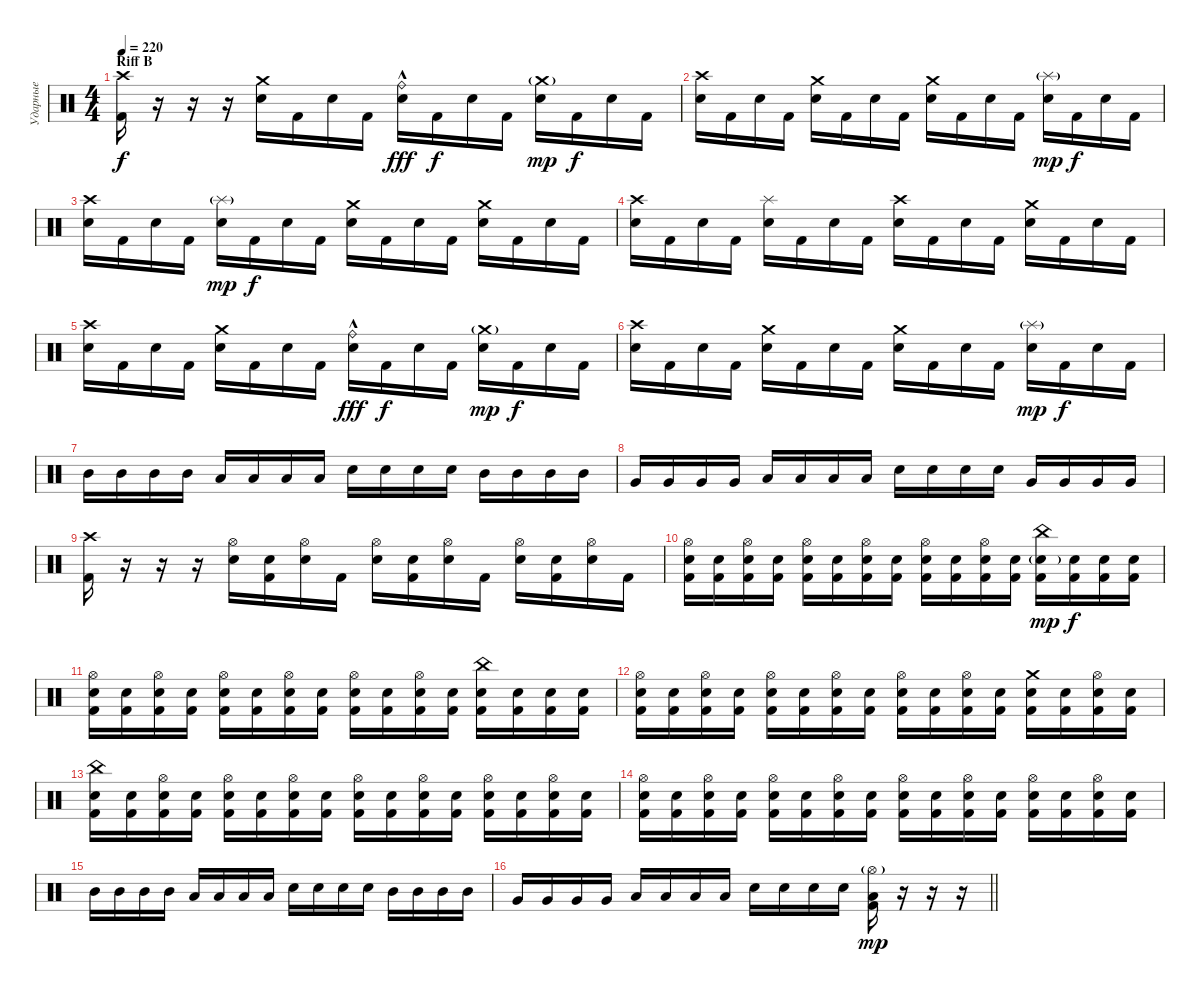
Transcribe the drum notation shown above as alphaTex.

\track ("Ударные" "Ударные") {instrument percussion}
\staff {score}
\articulation defaults
\ts (4 4)
\section ("" "Riff B")
\tempo 220
\clef neutral
\ks c
("Kick (hit) 2" "Crash high (hit)").16{dy f} r.16 r.16 r.16 ("Electric Snare (hit)" "Crash medium (hit)").16 "Kick (hit) 2".16 "Electric Snare (hit)".16 "Kick (hit) 2".16 ("Electric Snare (hit)" "Ride (bell)"{hac}).16{dy fff} "Kick (hit) 2".16{dy f} "Electric Snare (hit)".16 "Kick (hit) 2".16 ("Electric Snare (hit)" "Crash medium (hit)"{g}).16{dy mp} "Kick (hit) 2".16{dy f} "Electric Snare (hit)".16 "Kick (hit) 2".16 |
("Electric Snare (hit)" "Crash high (hit)").16 "Kick (hit) 2".16 "Electric Snare (hit)".16 "Kick (hit) 2".16 ("Electric Snare (hit)" "Crash medium (hit)").16 "Kick (hit) 2".16 "Electric Snare (hit)".16 "Kick (hit) 2".16 ("Electric Snare (hit)" "Crash medium (hit)").16 "Kick (hit) 2".16 "Electric Snare (hit)".16 "Kick (hit) 2".16 ("Electric Snare (hit)" "Splash (hit)"{g}).16{dy mp} "Kick (hit) 2".16{dy f} "Electric Snare (hit)".16 "Kick (hit) 2".16 |
("Electric Snare (hit)" "Crash high (hit)").16 "Kick (hit) 2".16 "Electric Snare (hit)".16 "Kick (hit) 2".16 ("Electric Snare (hit)" "Splash (hit)"{g}).16{dy mp} "Kick (hit) 2".16{dy f} "Electric Snare (hit)".16 "Kick (hit) 2".16 ("Electric Snare (hit)" "Crash medium (hit)").16 "Kick (hit) 2".16 "Electric Snare (hit)".16 "Kick (hit) 2".16 ("Electric Snare (hit)" "Crash medium (hit)").16 "Kick (hit) 2".16 "Electric Snare (hit)".16 "Kick (hit) 2".16 |
("Electric Snare (hit)" "Crash high (hit)").16 "Kick (hit) 2".16 "Electric Snare (hit)".16 "Kick (hit) 2".16 ("Electric Snare (hit)" "Splash (hit)").16 "Kick (hit) 2".16 "Electric Snare (hit)".16 "Kick (hit) 2".16 ("Electric Snare (hit)" "Crash high (hit)").16 "Kick (hit) 2".16 "Electric Snare (hit)".16 "Kick (hit) 2".16 ("Electric Snare (hit)" "Crash medium (hit)").16 "Kick (hit) 2".16 "Electric Snare (hit)".16 "Kick (hit) 2".16 |
("Electric Snare (hit)" "Crash high (hit)").16 "Kick (hit) 2".16 "Electric Snare (hit)".16 "Kick (hit) 2".16 ("Electric Snare (hit)" "Crash medium (hit)").16 "Kick (hit) 2".16 "Electric Snare (hit)".16 "Kick (hit) 2".16 ("Electric Snare (hit)" "Ride (bell)"{hac}).16{dy fff} "Kick (hit) 2".16{dy f} "Electric Snare (hit)".16 "Kick (hit) 2".16 ("Electric Snare (hit)" "Crash medium (hit)"{g}).16{dy mp} "Kick (hit) 2".16{dy f} "Electric Snare (hit)".16 "Kick (hit) 2".16 |
("Electric Snare (hit)" "Crash high (hit)").16 "Kick (hit) 2".16 "Electric Snare (hit)".16 "Kick (hit) 2".16 ("Electric Snare (hit)" "Crash medium (hit)").16 "Kick (hit) 2".16 "Electric Snare (hit)".16 "Kick (hit) 2".16 ("Electric Snare (hit)" "Crash medium (hit)").16 "Kick (hit) 2".16 "Electric Snare (hit)".16 "Kick (hit) 2".16 ("Electric Snare (hit)" "Splash (hit)"{g}).16{dy mp} "Kick (hit) 2".16{dy f} "Electric Snare (hit)".16 "Kick (hit) 2".16 |
"Mid Tom (hit)".16 "Mid Tom (hit)".16 "Mid Tom (hit)".16 "Mid Tom (hit)".16 "Low Tom (hit)".16 "Low Tom (hit)".16 "Low Tom (hit)".16 "Low Tom (hit)".16 "Electric Snare (hit)".16 "Electric Snare (hit)".16 "Electric Snare (hit)".16 "Electric Snare (hit)".16 "Mid Tom (hit)".16 "Mid Tom (hit)".16 "Mid Tom (hit)".16 "Mid Tom (hit)".16 |
"Very Low Tom (hit)".16 "Very Low Tom (hit)".16 "Very Low Tom (hit)".16 "Very Low Tom (hit)".16 "Low Tom (hit)".16 "Low Tom (hit)".16 "Low Tom (hit)".16 "Low Tom (hit)".16 "Electric Snare (hit)".16 "Electric Snare (hit)".16 "Electric Snare (hit)".16 "Electric Snare (hit)".16 "Very Low Tom (hit)".16 "Very Low Tom (hit)".16 "Very Low Tom (hit)".16 "Very Low Tom (hit)".16 |
("Kick (hit) 2" "Crash high (hit)").16 r.16 r.16 r.16 ("Electric Snare (hit)" "Hi-Hat (open)").16 ("Electric Snare (hit)" "Kick (hit) 2").16 ("Electric Snare (hit)" "Hi-Hat (open)").16 "Kick (hit) 2".16 ("Electric Snare (hit)" "Hi-Hat (open)").16 ("Electric Snare (hit)" "Kick (hit) 2").16 ("Electric Snare (hit)" "Hi-Hat (open)").16 "Kick (hit) 2".16 ("Electric Snare (hit)" "Hi-Hat (open)").16 ("Electric Snare (hit)" "Kick (hit) 2").16 ("Electric Snare (hit)" "Hi-Hat (open)").16 "Kick (hit) 2".16 |
("Electric Snare (hit)" "Kick (hit) 2" "Hi-Hat (open)").16 ("Electric Snare (hit)" "Kick (hit) 2").16 ("Electric Snare (hit)" "Kick (hit) 2" "Hi-Hat (open)").16 ("Electric Snare (hit)" "Kick (hit) 2").16 ("Electric Snare (hit)" "Kick (hit) 2" "Hi-Hat (open)").16 ("Electric Snare (hit)" "Kick (hit) 2").16 ("Electric Snare (hit)" "Kick (hit) 2" "Hi-Hat (open)").16 ("Electric Snare (hit)" "Kick (hit) 2").16 ("Electric Snare (hit)" "Kick (hit) 2" "Hi-Hat (open)").16 ("Electric Snare (hit)" "Kick (hit) 2").16 ("Electric Snare (hit)" "Kick (hit) 2" "Hi-Hat (open)").16 ("Electric Snare (hit)" "Kick (hit) 2").16 ("Electric Snare (hit)"{g} "Kick (hit) 2" "China (hit)").16{dy mp} ("Electric Snare (hit)" "Kick (hit) 2").16{dy f} ("Electric Snare (hit)" "Kick (hit) 2").16 ("Electric Snare (hit)" "Kick (hit) 2").16 |
("Electric Snare (hit)" "Kick (hit) 2" "Hi-Hat (open)").16 ("Electric Snare (hit)" "Kick (hit) 2").16 ("Electric Snare (hit)" "Kick (hit) 2" "Hi-Hat (open)").16 ("Electric Snare (hit)" "Kick (hit) 2").16 ("Electric Snare (hit)" "Kick (hit) 2" "Hi-Hat (open)").16 ("Electric Snare (hit)" "Kick (hit) 2").16 ("Electric Snare (hit)" "Kick (hit) 2" "Hi-Hat (open)").16 ("Electric Snare (hit)" "Kick (hit) 2").16 ("Electric Snare (hit)" "Kick (hit) 2" "Hi-Hat (open)").16 ("Electric Snare (hit)" "Kick (hit) 2").16 ("Electric Snare (hit)" "Kick (hit) 2" "Hi-Hat (open)").16 ("Electric Snare (hit)" "Kick (hit) 2").16 ("Electric Snare (hit)" "Kick (hit) 2" "China (hit)").16 ("Electric Snare (hit)" "Kick (hit) 2").16 ("Electric Snare (hit)" "Kick (hit) 2").16 ("Electric Snare (hit)" "Kick (hit) 2").16 |
("Electric Snare (hit)" "Kick (hit) 2" "Hi-Hat (open)").16 ("Electric Snare (hit)" "Kick (hit) 2").16 ("Electric Snare (hit)" "Kick (hit) 2" "Hi-Hat (open)").16 ("Electric Snare (hit)" "Kick (hit) 2").16 ("Electric Snare (hit)" "Kick (hit) 2" "Hi-Hat (open)").16 ("Electric Snare (hit)" "Kick (hit) 2").16 ("Electric Snare (hit)" "Kick (hit) 2" "Hi-Hat (open)").16 ("Electric Snare (hit)" "Kick (hit) 2").16 ("Electric Snare (hit)" "Kick (hit) 2" "Hi-Hat (open)").16 ("Electric Snare (hit)" "Kick (hit) 2").16 ("Electric Snare (hit)" "Kick (hit) 2" "Hi-Hat (open)").16 ("Electric Snare (hit)" "Kick (hit) 2").16 ("Electric Snare (hit)" "Kick (hit) 2" "Crash medium (hit)").16 ("Electric Snare (hit)" "Kick (hit) 2").16 ("Electric Snare (hit)" "Kick (hit) 2" "Hi-Hat (open)").16 ("Electric Snare (hit)" "Kick (hit) 2").16 |
("Electric Snare (hit)" "Kick (hit) 2" "China (hit)").16 ("Electric Snare (hit)" "Kick (hit) 2").16 ("Electric Snare (hit)" "Kick (hit) 2" "Hi-Hat (open)").16 ("Electric Snare (hit)" "Kick (hit) 2").16 ("Electric Snare (hit)" "Kick (hit) 2" "Hi-Hat (open)").16 ("Electric Snare (hit)" "Kick (hit) 2").16 ("Electric Snare (hit)" "Kick (hit) 2" "Hi-Hat (open)").16 ("Electric Snare (hit)" "Kick (hit) 2").16 ("Electric Snare (hit)" "Kick (hit) 2" "Hi-Hat (open)").16 ("Electric Snare (hit)" "Kick (hit) 2").16 ("Electric Snare (hit)" "Kick (hit) 2" "Hi-Hat (open)").16 ("Electric Snare (hit)" "Kick (hit) 2").16 ("Electric Snare (hit)" "Kick (hit) 2" "Hi-Hat (open)").16 ("Electric Snare (hit)" "Kick (hit) 2").16 ("Electric Snare (hit)" "Kick (hit) 2" "Hi-Hat (open)").16 ("Electric Snare (hit)" "Kick (hit) 2").16 |
("Electric Snare (hit)" "Kick (hit) 2" "Hi-Hat (open)").16 ("Electric Snare (hit)" "Kick (hit) 2").16 ("Electric Snare (hit)" "Kick (hit) 2" "Hi-Hat (open)").16 ("Electric Snare (hit)" "Kick (hit) 2").16 ("Electric Snare (hit)" "Kick (hit) 2" "Hi-Hat (open)").16 ("Electric Snare (hit)" "Kick (hit) 2").16 ("Electric Snare (hit)" "Kick (hit) 2" "Hi-Hat (open)").16 ("Electric Snare (hit)" "Kick (hit) 2").16 ("Electric Snare (hit)" "Kick (hit) 2" "Hi-Hat (open)").16 ("Electric Snare (hit)" "Kick (hit) 2").16 ("Electric Snare (hit)" "Kick (hit) 2" "Hi-Hat (open)").16 ("Electric Snare (hit)" "Kick (hit) 2").16 ("Electric Snare (hit)" "Kick (hit) 2" "Hi-Hat (open)").16 ("Electric Snare (hit)" "Kick (hit) 2").16 ("Electric Snare (hit)" "Kick (hit) 2" "Hi-Hat (open)").16 ("Electric Snare (hit)" "Kick (hit) 2").16 |
"Mid Tom (hit)".16 "Mid Tom (hit)".16 "Mid Tom (hit)".16 "Mid Tom (hit)".16 "Low Tom (hit)".16 "Low Tom (hit)".16 "Low Tom (hit)".16 "Low Tom (hit)".16 "Electric Snare (hit)".16 "Electric Snare (hit)".16 "Electric Snare (hit)".16 "Electric Snare (hit)".16 "Mid Tom (hit)".16 "Mid Tom (hit)".16 "Mid Tom (hit)".16 "Mid Tom (hit)".16 |
\barLineRight lightlight "Very Low Tom (hit)".16 "Very Low Tom (hit)".16 "Very Low Tom (hit)".16 "Very Low Tom (hit)".16 "Low Tom (hit)".16 "Low Tom (hit)".16 "Low Tom (hit)".16 "Low Tom (hit)".16 "Electric Snare (hit)".16 "Electric Snare (hit)".16 "Electric Snare (hit)".16 "Electric Snare (hit)".16
("Hi-Hat (open)"{g} "Kick (hit) 2" "Low Tom (hit)").16{dy mp} r.16 r.16 r.16
